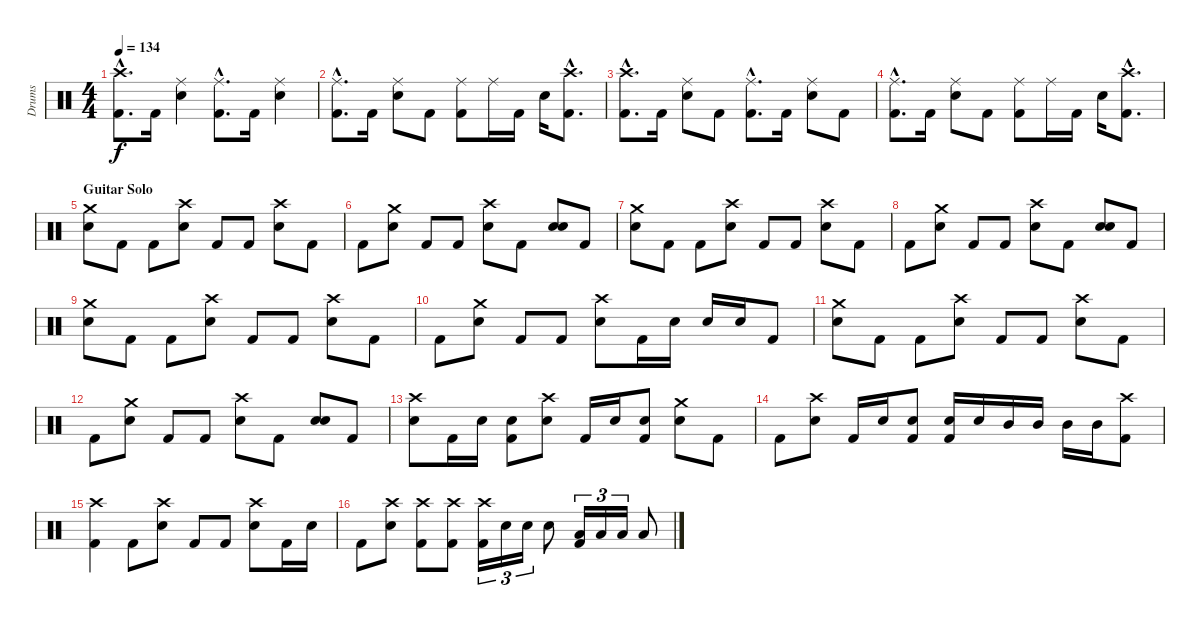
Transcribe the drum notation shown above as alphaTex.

\track ("Drums" "Drums") {instrument percussion}
\staff {score}
\articulation defaults
\ts (4 4)
\tempo 134
\clef neutral
\ks c
("Crash high (hit)"{hac} "Kick (hit) 2"{hac}).8{d dy f} "Kick (hit) 2".16 ("Ride (middle)" "Electric Snare (hit)").4 ("Ride (middle)"{hac} "Kick (hit) 2"{hac}).8{d} "Kick (hit) 2".16 ("Ride (middle)" "Electric Snare (hit)").4 |
("Ride (middle)"{hac} "Kick (hit) 2"{hac}).8{d} "Kick (hit) 2".16 ("Ride (middle)" "Electric Snare (hit)").8 "Kick (hit) 2".8 ("Ride (middle)" "Kick (hit) 2").8 "Ride (middle)".16 "Kick (hit) 2".16 "Electric Snare (hit)".16 ("Crash high (hit)"{hac} "Kick (hit) 2"{hac}).8{d} |
("Crash high (hit)"{hac} "Kick (hit) 2"{hac}).8{d} "Kick (hit) 2".16 ("Ride (middle)" "Electric Snare (hit)").8 "Kick (hit) 2".8 ("Ride (middle)"{hac} "Kick (hit) 2"{hac}).8{d} "Kick (hit) 2".16 ("Ride (middle)" "Electric Snare (hit)").8 "Kick (hit) 2".8 |
("Ride (middle)"{hac} "Kick (hit) 2"{hac}).8{d} "Kick (hit) 2".16 ("Ride (middle)" "Electric Snare (hit)").8 "Kick (hit) 2".8 ("Ride (middle)" "Kick (hit) 2").8 "Ride (middle)".16 "Kick (hit) 2".16 "Electric Snare (hit)".16 ("Crash high (hit)"{hac} "Kick (hit) 2"{hac}).8{d} |
\section ("" "Guitar Solo")
("Crash medium (hit)" "Electric Snare (hit)").8 "Kick (hit) 2".8 "Kick (hit) 2".8 ("Crash high (hit)" "Electric Snare (hit)").8 "Kick (hit) 2".8 "Kick (hit) 2".8 ("Crash high (hit)" "Electric Snare (hit)").8 "Kick (hit) 2".8 |
"Kick (hit) 2".8 ("Crash medium (hit)" "Electric Snare (hit)").8 "Kick (hit) 2".8 "Kick (hit) 2".8 ("Crash high (hit)" "Electric Snare (hit)").8 "Kick (hit) 2".8 ("Electric Snare (hit)" "Electric Snare (hit)").8 "Kick (hit) 2".8 |
("Crash medium (hit)" "Electric Snare (hit)").8 "Kick (hit) 2".8 "Kick (hit) 2".8 ("Crash high (hit)" "Electric Snare (hit)").8 "Kick (hit) 2".8 "Kick (hit) 2".8 ("Crash high (hit)" "Electric Snare (hit)").8 "Kick (hit) 2".8 |
"Kick (hit) 2".8 ("Crash medium (hit)" "Electric Snare (hit)").8 "Kick (hit) 2".8 "Kick (hit) 2".8 ("Crash high (hit)" "Electric Snare (hit)").8 "Kick (hit) 2".8 ("Electric Snare (hit)" "Electric Snare (hit)").8 "Kick (hit) 2".8 |
("Crash medium (hit)" "Electric Snare (hit)").8 "Kick (hit) 2".8 "Kick (hit) 2".8 ("Crash high (hit)" "Electric Snare (hit)").8 "Kick (hit) 2".8 "Kick (hit) 2".8 ("Crash high (hit)" "Electric Snare (hit)").8 "Kick (hit) 2".8 |
"Kick (hit) 2".8 ("Crash medium (hit)" "Electric Snare (hit)").8 "Kick (hit) 2".8 "Kick (hit) 2".8 ("Crash high (hit)" "Electric Snare (hit)").8 "Kick (hit) 2".16 "Electric Snare (hit)".16 "Electric Snare (hit)".16 "Electric Snare (hit)".16 "Kick (hit) 2".8 |
("Crash medium (hit)" "Electric Snare (hit)").8 "Kick (hit) 2".8 "Kick (hit) 2".8 ("Crash high (hit)" "Electric Snare (hit)").8 "Kick (hit) 2".8 "Kick (hit) 2".8 ("Crash high (hit)" "Electric Snare (hit)").8 "Kick (hit) 2".8 |
"Kick (hit) 2".8 ("Crash medium (hit)" "Electric Snare (hit)").8 "Kick (hit) 2".8 "Kick (hit) 2".8 ("Crash high (hit)" "Electric Snare (hit)").8 "Kick (hit) 2".8 ("Electric Snare (hit)" "Electric Snare (hit)").8 "Kick (hit) 2".8 |
("Crash high (hit)" "Electric Snare (hit)").8 "Kick (hit) 2".16 "Electric Snare (hit)".16 ("Electric Snare (hit)" "Kick (hit) 2").8 ("Crash high (hit)" "Electric Snare (hit)").8 "Kick (hit) 2".16 "Electric Snare (hit)".16 ("Electric Snare (hit)" "Kick (hit) 2").8 ("Crash medium (hit)" "Electric Snare (hit)").8 "Kick (hit) 2".8 |
"Kick (hit) 2".8 ("Crash high (hit)" "Electric Snare (hit)").8 "Kick (hit) 2".16 "Electric Snare (hit)".16 ("Electric Snare (hit)" "Kick (hit) 2").8 ("Electric Snare (hit)" "Kick (hit) 2").16 "Electric Snare (hit)".16 "Mid Tom (hit)".16 "Mid Tom (hit)".16 "Mid Tom (hit)".16 "Mid Tom (hit)".16 ("Crash high (hit)" "Kick (hit) 2").8 |
("Crash high (hit)" "Kick (hit) 2").4 "Kick (hit) 2".8 ("Crash high (hit)" "Electric Snare (hit)").8 "Kick (hit) 2".8 "Kick (hit) 2".8 ("Crash high (hit)" "Electric Snare (hit)").8 "Kick (hit) 2".16 "Electric Snare (hit)".16 |
"Kick (hit) 2".8 ("Crash high (hit)" "Electric Snare (hit)").8 ("Crash high (hit)" "Kick (hit) 2").8 ("Crash high (hit)" "Kick (hit) 2").8 ("Crash high (hit)" "Kick (hit) 2").16{tu (3 2)} "Electric Snare (hit)".16{tu (3 2)} "Electric Snare (hit)".16{tu (3 2)} "Electric Snare (hit)".8 ("Low Tom (hit)" "Kick (hit) 2").16{tu (3 2)} "Low Tom (hit)".16{tu (3 2)} "Low Tom (hit)".16{tu (3 2)} "Low Tom (hit)".8
